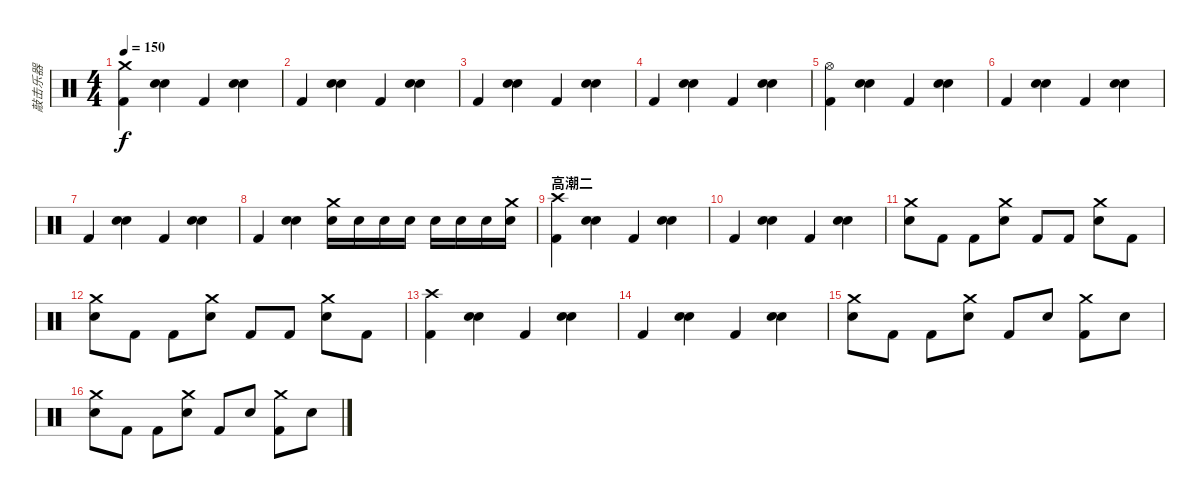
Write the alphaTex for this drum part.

\track ("敲击乐器" "敲击乐器") {instrument percussion}
\staff {score}
\articulation defaults
\ts (4 4)
\tempo 150
\clef neutral
\ks c
("Kick (hit) 2" "Crash medium (hit)").4{dy f} ("Snare (hit) 2" "Electric Snare (hit)").4 "Kick (hit) 2".4 ("Snare (hit) 2" "Electric Snare (hit)").4 |
"Kick (hit) 2".4 ("Snare (hit) 2" "Electric Snare (hit)").4 "Kick (hit) 2".4 ("Snare (hit) 2" "Electric Snare (hit)").4 |
"Kick (hit) 2".4 ("Snare (hit) 2" "Electric Snare (hit)").4 "Kick (hit) 2".4 ("Snare (hit) 2" "Electric Snare (hit)").4 |
"Kick (hit) 2".4 ("Snare (hit) 2" "Electric Snare (hit)").4 "Kick (hit) 2".4 ("Snare (hit) 2" "Electric Snare (hit)").4 |
("Kick (hit) 2" "Hi-Hat (open)").4 ("Snare (hit) 2" "Electric Snare (hit)").4 "Kick (hit) 2".4 ("Snare (hit) 2" "Electric Snare (hit)").4 |
"Kick (hit) 2".4 ("Snare (hit) 2" "Electric Snare (hit)").4 "Kick (hit) 2".4 ("Snare (hit) 2" "Electric Snare (hit)").4 |
"Kick (hit) 2".4 ("Snare (hit) 2" "Electric Snare (hit)").4 "Kick (hit) 2".4 ("Snare (hit) 2" "Electric Snare (hit)").4 |
"Kick (hit) 2".4 ("Snare (hit) 2" "Electric Snare (hit)").4 ("Electric Snare (hit)" "Crash medium (hit)").16 "Electric Snare (hit)".16 "Electric Snare (hit)".16 "Electric Snare (hit)".16 "Electric Snare (hit)".16 "Electric Snare (hit)".16 "Electric Snare (hit)".16 ("Electric Snare (hit)" "Crash medium (hit)").16 |
\section ("" "高潮二")
("Kick (hit) 2" "Crash high (hit)").4 ("Snare (hit) 2" "Electric Snare (hit)").4 "Kick (hit) 2".4 ("Snare (hit) 2" "Electric Snare (hit)").4 |
"Kick (hit) 2".4 ("Snare (hit) 2" "Electric Snare (hit)").4 "Kick (hit) 2".4 ("Snare (hit) 2" "Electric Snare (hit)").4 |
("Snare (hit) 2" "Crash medium (hit)").8 "Kick (hit) 2".8 "Kick (hit) 2".8 ("Snare (hit) 2" "Crash medium (hit)").8 "Kick (hit) 2".8 "Kick (hit) 2".8 ("Snare (hit) 2" "Crash medium (hit)").8 "Kick (hit) 2".8 |
("Snare (hit) 2" "Crash medium (hit)").8 "Kick (hit) 2".8 "Kick (hit) 2".8 ("Snare (hit) 2" "Crash medium (hit)").8 "Kick (hit) 2".8 "Kick (hit) 2".8 ("Snare (hit) 2" "Crash medium (hit)").8 "Kick (hit) 2".8 |
("Kick (hit) 2" "Crash high (hit)").4 ("Snare (hit) 2" "Electric Snare (hit)").4 "Kick (hit) 2".4 ("Snare (hit) 2" "Electric Snare (hit)").4 |
"Kick (hit) 2".4 ("Snare (hit) 2" "Electric Snare (hit)").4 "Kick (hit) 2".4 ("Snare (hit) 2" "Electric Snare (hit)").4 |
("Snare (hit) 2" "Crash medium (hit)").8 "Kick (hit) 2".8 "Kick (hit) 2".8 ("Snare (hit) 2" "Crash medium (hit)").8 "Kick (hit) 2".8 "Snare (hit) 2".8 ("Kick (hit) 2" "Crash medium (hit)").8 "Snare (hit) 2".8 |
("Snare (hit) 2" "Crash medium (hit)").8 "Kick (hit) 2".8 "Kick (hit) 2".8 ("Snare (hit) 2" "Crash medium (hit)").8 "Kick (hit) 2".8 "Snare (hit) 2".8 ("Kick (hit) 2" "Crash medium (hit)").8 "Snare (hit) 2".8
